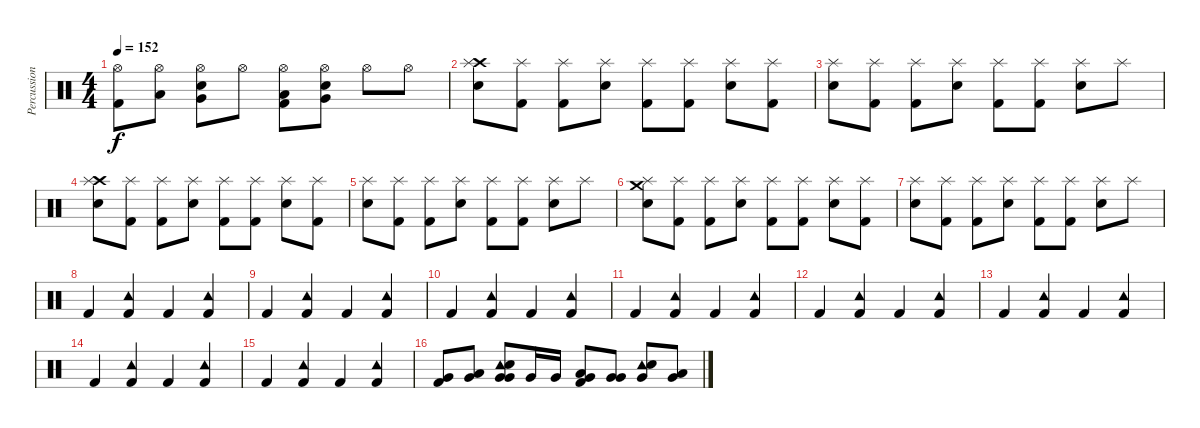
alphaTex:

\track ("Percussion" "Percussion") {instrument percussion}
\staff {score}
\articulation defaults
\ts (4 4)
\tempo 152
\clef neutral
\ks c
("Hi-Hat (open)" "Kick (hit) 2").8{dy f} ("Hi-Hat (open)" "Low Tom (hit)").8 ("Hi-Hat (open)" "Very Low Tom (hit)" "Snare (hit) 2").8 "Hi-Hat (open)".8 ("Hi-Hat (open)" "Low Tom (hit)" "Kick (hit) 2").8 ("Hi-Hat (open)" "Very Low Tom (hit)" "Snare (hit) 2").8 "Hi-Hat (open)".8 "Hi-Hat (open)".8 |
("Crash high (hit)" "Splash (hit)" "Snare (hit) 2").8 ("Splash (hit)" "Kick (hit) 2").8 ("Splash (hit)" "Kick (hit) 2").8 ("Splash (hit)" "Snare (hit) 2").8 ("Splash (hit)" "Kick (hit) 2").8 ("Splash (hit)" "Kick (hit) 2").8 ("Splash (hit)" "Snare (hit) 2").8 ("Splash (hit)" "Kick (hit) 2").8 |
("Splash (hit)" "Snare (hit) 2").8 ("Splash (hit)" "Kick (hit) 2").8 ("Splash (hit)" "Kick (hit) 2").8 ("Splash (hit)" "Snare (hit) 2").8 ("Splash (hit)" "Kick (hit) 2").8 ("Splash (hit)" "Kick (hit) 2").8 ("Splash (hit)" "Snare (hit) 2").8 "Splash (hit)".8 |
("Crash high (hit)" "Splash (hit)" "Snare (hit) 2").8 ("Splash (hit)" "Kick (hit) 2").8 ("Splash (hit)" "Kick (hit) 2").8 ("Splash (hit)" "Snare (hit) 2").8 ("Splash (hit)" "Kick (hit) 2").8 ("Splash (hit)" "Kick (hit) 2").8 ("Splash (hit)" "Snare (hit) 2").8 ("Splash (hit)" "Kick (hit) 2").8 |
("Splash (hit)" "Snare (hit) 2").8 ("Splash (hit)" "Kick (hit) 2").8 ("Splash (hit)" "Kick (hit) 2").8 ("Splash (hit)" "Snare (hit) 2").8 ("Splash (hit)" "Kick (hit) 2").8 ("Splash (hit)" "Kick (hit) 2").8 ("Splash (hit)" "Snare (hit) 2").8 "Splash (hit)".8 |
("Crash medium (hit)" "Splash (hit)" "Snare (hit) 2").8 ("Splash (hit)" "Kick (hit) 2").8 ("Splash (hit)" "Kick (hit) 2").8 ("Splash (hit)" "Snare (hit) 2").8 ("Splash (hit)" "Kick (hit) 2").8 ("Splash (hit)" "Kick (hit) 2").8 ("Splash (hit)" "Snare (hit) 2").8 ("Splash (hit)" "Kick (hit) 2").8 |
("Splash (hit)" "Snare (hit) 2").8 ("Splash (hit)" "Kick (hit) 2").8 ("Splash (hit)" "Kick (hit) 2").8 ("Splash (hit)" "Snare (hit) 2").8 ("Splash (hit)" "Kick (hit) 2").8 ("Splash (hit)" "Kick (hit) 2").8 ("Splash (hit)" "Snare (hit) 2").8 "Splash (hit)".8 |
"Kick (hit) 2".4 ("Tambourine (hit)" "Kick (hit) 2").4 "Kick (hit) 2".4 ("Tambourine (hit)" "Kick (hit) 2").4 |
"Kick (hit) 2".4 ("Tambourine (hit)" "Kick (hit) 2").4 "Kick (hit) 2".4 ("Tambourine (hit)" "Kick (hit) 2").4 |
"Kick (hit) 2".4 ("Tambourine (hit)" "Kick (hit) 2").4 "Kick (hit) 2".4 ("Tambourine (hit)" "Kick (hit) 2").4 |
"Kick (hit) 2".4 ("Tambourine (hit)" "Kick (hit) 2").4 "Kick (hit) 2".4 ("Tambourine (hit)" "Kick (hit) 2").4 |
"Kick (hit) 2".4 ("Tambourine (hit)" "Kick (hit) 2").4 "Kick (hit) 2".4 ("Tambourine (hit)" "Kick (hit) 2").4 |
"Kick (hit) 2".4 ("Tambourine (hit)" "Kick (hit) 2").4 "Kick (hit) 2".4 ("Tambourine (hit)" "Kick (hit) 2").4 |
"Kick (hit) 2".4 ("Tambourine (hit)" "Kick (hit) 2").4 "Kick (hit) 2".4 ("Tambourine (hit)" "Kick (hit) 2").4 |
"Kick (hit) 2".4 ("Tambourine (hit)" "Kick (hit) 2").4 "Kick (hit) 2".4 ("Tambourine (hit)" "Kick (hit) 2").4 |
("Very Low Tom (hit)" "Kick (hit) 2").8 ("Very Low Tom (hit)" "Low Tom (hit)").8 ("Very Low Tom (hit)" "Tambourine (hit)" "Very Low Tom (hit)" "Snare (hit) 2").8 "Very Low Tom (hit)".16 "Very Low Tom (hit)".16 ("Very Low Tom (hit)" "Low Tom (hit)" "Kick (hit) 2").8 ("Very Low Tom (hit)" "Very Low Tom (hit)").8 ("Very Low Tom (hit)" "Tambourine (hit)" "Snare (hit) 2").8 ("Very Low Tom (hit)" "Low Tom (hit)").8
